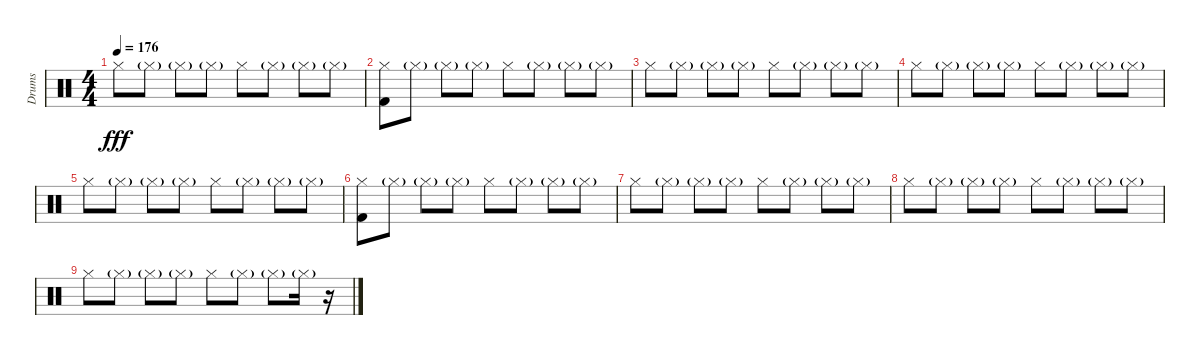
\track ("Drums" "Drums") {instrument percussion}
\staff {score}
\articulation defaults
\ts (4 4)
\tempo 176
\clef neutral
\ks aminor "Hi-Hat (closed)".8{dy fff} "Hi-Hat (closed)"{g}.8 "Hi-Hat (closed)"{g}.8 "Hi-Hat (closed)"{g}.8 "Hi-Hat (closed)".8 "Hi-Hat (closed)"{g}.8 "Hi-Hat (closed)"{g}.8 "Hi-Hat (closed)"{g}.8
|
("Kick (hit) 2" "Hi-Hat (closed)").8 "Hi-Hat (closed)"{g}.8 "Hi-Hat (closed)"{g}.8 "Hi-Hat (closed)"{g}.8 "Hi-Hat (closed)".8 "Hi-Hat (closed)"{g}.8 "Hi-Hat (closed)"{g}.8 "Hi-Hat (closed)"{g}.8 |
"Hi-Hat (closed)".8 "Hi-Hat (closed)"{g}.8 "Hi-Hat (closed)"{g}.8 "Hi-Hat (closed)"{g}.8 "Hi-Hat (closed)".8 "Hi-Hat (closed)"{g}.8 "Hi-Hat (closed)"{g}.8 "Hi-Hat (closed)"{g}.8 |
"Hi-Hat (closed)".8 "Hi-Hat (closed)"{g}.8 "Hi-Hat (closed)"{g}.8 "Hi-Hat (closed)"{g}.8 "Hi-Hat (closed)".8 "Hi-Hat (closed)"{g}.8 "Hi-Hat (closed)"{g}.8 "Hi-Hat (closed)"{g}.8 |
"Hi-Hat (closed)".8 "Hi-Hat (closed)"{g}.8 "Hi-Hat (closed)"{g}.8 "Hi-Hat (closed)"{g}.8 "Hi-Hat (closed)".8 "Hi-Hat (closed)"{g}.8 "Hi-Hat (closed)"{g}.8 "Hi-Hat (closed)"{g}.8 |
("Kick (hit) 2" "Hi-Hat (closed)").8 "Hi-Hat (closed)"{g}.8 "Hi-Hat (closed)"{g}.8 "Hi-Hat (closed)"{g}.8 "Hi-Hat (closed)".8 "Hi-Hat (closed)"{g}.8 "Hi-Hat (closed)"{g}.8 "Hi-Hat (closed)"{g}.8 |
"Hi-Hat (closed)".8 "Hi-Hat (closed)"{g}.8 "Hi-Hat (closed)"{g}.8 "Hi-Hat (closed)"{g}.8 "Hi-Hat (closed)".8 "Hi-Hat (closed)"{g}.8 "Hi-Hat (closed)"{g}.8 "Hi-Hat (closed)"{g}.8 |
"Hi-Hat (closed)".8 "Hi-Hat (closed)"{g}.8 "Hi-Hat (closed)"{g}.8 "Hi-Hat (closed)"{g}.8 "Hi-Hat (closed)".8 "Hi-Hat (closed)"{g}.8 "Hi-Hat (closed)"{g}.8 "Hi-Hat (closed)"{g}.8 |
"Hi-Hat (closed)".8 "Hi-Hat (closed)"{g}.8 "Hi-Hat (closed)"{g}.8 "Hi-Hat (closed)"{g}.8 "Hi-Hat (closed)".8 "Hi-Hat (closed)"{g}.8 "Hi-Hat (closed)"{g}.8 "Hi-Hat (closed)"{g}.16 r.16
